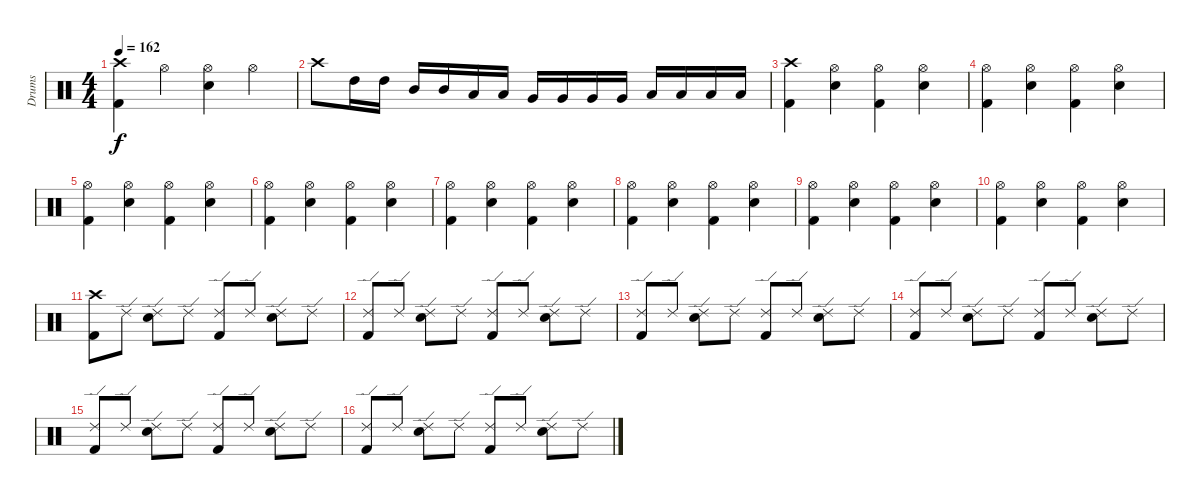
\track ("Drums" "Drums") {instrument percussion}
\staff {score}
\articulation defaults
\ts (4 4)
\tempo 162
\clef neutral
\ks c
("Crash high (hit)" "Kick (hit) 2").4{dy f} "Hi-Hat (open)".4 ("Hi-Hat (open)" "Snare (hit) 2").4 "Hi-Hat (open)".4 |
"Crash high (hit)".8 "High Tom (hit)".16 "High Tom (hit)".16 "Mid Tom (hit)".16 "Mid Tom (hit)".16 "Low Tom (hit)".16 "Low Tom (hit)".16 "Very Low Tom (hit)".16 "Very Low Tom (hit)".16 "Very Low Tom (hit)".16 "Very Low Tom (hit)".16 "Low Floor Tom (hit)".16 "Low Floor Tom (hit)".16 "Low Floor Tom (hit)".16 "Low Floor Tom (hit)".16 |
("Crash high (hit)" "Kick (hit) 2").4 ("Hi-Hat (open)" "Snare (hit) 2").4 ("Hi-Hat (open)" "Kick (hit) 2").4 ("Hi-Hat (open)" "Snare (hit) 2").4 |
("Hi-Hat (open)" "Kick (hit) 2").4 ("Hi-Hat (open)" "Snare (hit) 2").4 ("Hi-Hat (open)" "Kick (hit) 2").4 ("Hi-Hat (open)" "Snare (hit) 2").4 |
("Hi-Hat (open)" "Kick (hit) 2").4 ("Hi-Hat (open)" "Snare (hit) 2").4 ("Hi-Hat (open)" "Kick (hit) 2").4 ("Hi-Hat (open)" "Snare (hit) 2").4 |
("Hi-Hat (open)" "Kick (hit) 2").4 ("Hi-Hat (open)" "Snare (hit) 2").4 ("Hi-Hat (open)" "Kick (hit) 2").4 ("Hi-Hat (open)" "Snare (hit) 2").4 |
("Hi-Hat (open)" "Kick (hit) 2").4 ("Hi-Hat (open)" "Snare (hit) 2").4 ("Hi-Hat (open)" "Kick (hit) 2").4 ("Hi-Hat (open)" "Snare (hit) 2").4 |
("Hi-Hat (open)" "Kick (hit) 2").4 ("Hi-Hat (open)" "Snare (hit) 2").4 ("Hi-Hat (open)" "Kick (hit) 2").4 ("Hi-Hat (open)" "Snare (hit) 2").4 |
("Hi-Hat (open)" "Kick (hit) 2").4 ("Hi-Hat (open)" "Snare (hit) 2").4 ("Hi-Hat (open)" "Kick (hit) 2").4 ("Hi-Hat (open)" "Snare (hit) 2").4 |
("Hi-Hat (open)" "Kick (hit) 2").4 ("Hi-Hat (open)" "Snare (hit) 2").4 ("Hi-Hat (open)" "Kick (hit) 2").4 ("Hi-Hat (open)" "Snare (hit) 2").4 |
("Crash high (hit)" "Kick (hit) 2").8 "Ride (edge) 2".8 ("Ride (edge) 2" "Snare (hit) 2").8 "Ride (edge) 2".8 ("Ride (edge) 2" "Kick (hit) 2").8 "Ride (edge) 2".8 ("Ride (edge) 2" "Snare (hit) 2").8 "Ride (edge) 2".8 |
("Ride (edge) 2" "Kick (hit) 2").8 "Ride (edge) 2".8 ("Ride (edge) 2" "Snare (hit) 2").8 "Ride (edge) 2".8 ("Ride (edge) 2" "Kick (hit) 2").8 "Ride (edge) 2".8 ("Ride (edge) 2" "Snare (hit) 2").8 "Ride (edge) 2".8 |
("Ride (edge) 2" "Kick (hit) 2").8 "Ride (edge) 2".8 ("Ride (edge) 2" "Snare (hit) 2").8 "Ride (edge) 2".8 ("Ride (edge) 2" "Kick (hit) 2").8 "Ride (edge) 2".8 ("Ride (edge) 2" "Snare (hit) 2").8 "Ride (edge) 2".8 |
("Ride (edge) 2" "Kick (hit) 2").8 "Ride (edge) 2".8 ("Ride (edge) 2" "Snare (hit) 2").8 "Ride (edge) 2".8 ("Ride (edge) 2" "Kick (hit) 2").8 "Ride (edge) 2".8 ("Ride (edge) 2" "Snare (hit) 2").8 "Ride (edge) 2".8 |
("Ride (edge) 2" "Kick (hit) 2").8 "Ride (edge) 2".8 ("Ride (edge) 2" "Snare (hit) 2").8 "Ride (edge) 2".8 ("Ride (edge) 2" "Kick (hit) 2").8 "Ride (edge) 2".8 ("Ride (edge) 2" "Snare (hit) 2").8 "Ride (edge) 2".8 |
("Ride (edge) 2" "Kick (hit) 2").8 "Ride (edge) 2".8 ("Ride (edge) 2" "Snare (hit) 2").8 "Ride (edge) 2".8 ("Ride (edge) 2" "Kick (hit) 2").8 "Ride (edge) 2".8 ("Ride (edge) 2" "Snare (hit) 2").8 "Ride (edge) 2".8
